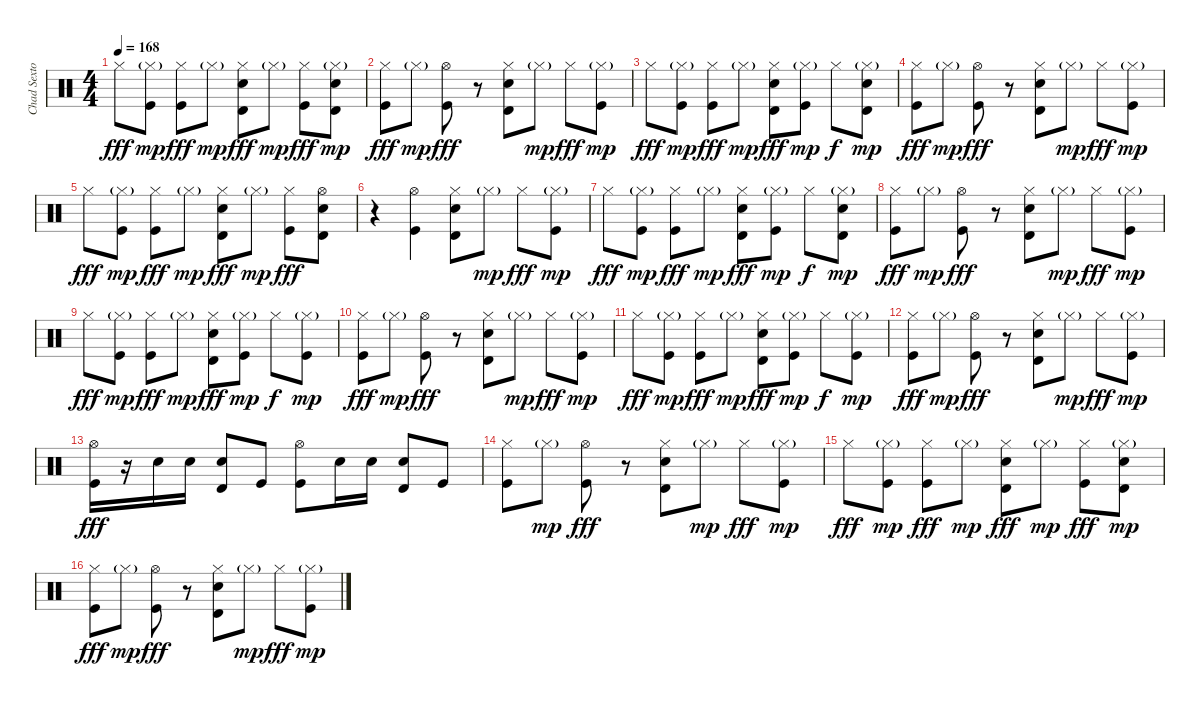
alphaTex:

\track ("Chad Sexton" "Chad Sexto") {instrument percussion}
\staff {score}
\articulation defaults
\ts (4 4)
\tempo 168
\clef neutral
\ks c "Hi-Hat (closed)".8{dy fff}
("Kick (hit)" "Hi-Hat (closed)"{g}).8{dy mp} ("Kick (hit)" "Hi-Hat (closed)").8{dy fff} "Hi-Hat (closed)"{g}.8{dy mp} ("Electric Snare (hit)" "Timbale high (hit)" "Hi-Hat (closed)").8{dy fff} "Hi-Hat (closed)"{g}.8{dy mp} ("Kick (hit)" "Hi-Hat (closed)").8{dy fff} ("Electric Snare (hit)" "Timbale high (hit)" "Hi-Hat (closed)"{g}).8{dy mp} |
("Kick (hit)" "Hi-Hat (closed)").8{dy fff} "Hi-Hat (closed)"{g}.8{dy mp} ("Kick (hit)" "Hi-Hat (open)").8{dy fff} r.8 ("Electric Snare (hit)" "Timbale high (hit)" "Hi-Hat (closed)").8 "Hi-Hat (closed)"{g}.8{dy mp} "Hi-Hat (closed)".8{dy fff} ("Kick (hit)" "Hi-Hat (closed)"{g}).8{dy mp} |
"Hi-Hat (closed)".8{dy fff} ("Kick (hit)" "Hi-Hat (closed)"{g}).8{dy mp} ("Kick (hit)" "Hi-Hat (closed)").8{dy fff} "Hi-Hat (closed)"{g}.8{dy mp} ("Electric Snare (hit)" "Timbale high (hit)" "Hi-Hat (closed)").8{dy fff} ("Kick (hit)" "Hi-Hat (closed)"{g}).8{dy mp} "Hi-Hat (closed)".8{dy f} ("Electric Snare (hit)" "Timbale high (hit)" "Hi-Hat (closed)"{g}).8{dy mp} |
("Kick (hit)" "Hi-Hat (closed)").8{dy fff} "Hi-Hat (closed)"{g}.8{dy mp} ("Kick (hit)" "Hi-Hat (open)").8{dy fff} r.8 ("Electric Snare (hit)" "Timbale high (hit)" "Hi-Hat (closed)").8 "Hi-Hat (closed)"{g}.8{dy mp} "Hi-Hat (closed)".8{dy fff} ("Kick (hit)" "Hi-Hat (closed)"{g}).8{dy mp} |
"Hi-Hat (closed)".8{dy fff} ("Kick (hit)" "Hi-Hat (closed)"{g}).8{dy mp} ("Kick (hit)" "Hi-Hat (closed)").8{dy fff} "Hi-Hat (closed)"{g}.8{dy mp} ("Electric Snare (hit)" "Timbale high (hit)" "Hi-Hat (closed)").8{dy fff} "Hi-Hat (closed)"{g}.8{dy mp} ("Kick (hit)" "Hi-Hat (closed)").8{dy fff} ("Electric Snare (hit)" "Timbale high (hit)" "Hi-Hat (open)").8 |
r.4 ("Kick (hit)" "Hi-Hat (open)").4 ("Electric Snare (hit)" "Timbale high (hit)" "Hi-Hat (closed)").8 "Hi-Hat (closed)"{g}.8{dy mp} "Hi-Hat (closed)".8{dy fff} ("Kick (hit)" "Hi-Hat (closed)"{g}).8{dy mp} |
"Hi-Hat (closed)".8{dy fff} ("Kick (hit)" "Hi-Hat (closed)"{g}).8{dy mp} ("Kick (hit)" "Hi-Hat (closed)").8{dy fff} "Hi-Hat (closed)"{g}.8{dy mp} ("Electric Snare (hit)" "Timbale high (hit)" "Hi-Hat (closed)").8{dy fff} ("Kick (hit)" "Hi-Hat (closed)"{g}).8{dy mp} "Hi-Hat (closed)".8{dy f} ("Electric Snare (hit)" "Timbale high (hit)" "Hi-Hat (closed)"{g}).8{dy mp} |
("Kick (hit)" "Hi-Hat (closed)").8{dy fff} "Hi-Hat (closed)"{g}.8{dy mp} ("Kick (hit)" "Hi-Hat (open)").8{dy fff} r.8 ("Electric Snare (hit)" "Timbale high (hit)" "Hi-Hat (closed)").8 "Hi-Hat (closed)"{g}.8{dy mp} "Hi-Hat (closed)".8{dy fff} ("Kick (hit)" "Hi-Hat (closed)"{g}).8{dy mp} |
"Hi-Hat (closed)".8{dy fff} ("Kick (hit)" "Hi-Hat (closed)"{g}).8{dy mp} ("Kick (hit)" "Hi-Hat (closed)").8{dy fff} "Hi-Hat (closed)"{g}.8{dy mp} ("Electric Snare (hit)" "Timbale high (hit)" "Hi-Hat (closed)").8{dy fff} ("Kick (hit)" "Hi-Hat (closed)"{g}).8{dy mp} "Hi-Hat (closed)".8{dy f} ("Kick (hit)" "Hi-Hat (closed)"{g}).8{dy mp} |
("Kick (hit)" "Hi-Hat (closed)").8{dy fff} "Hi-Hat (closed)"{g}.8{dy mp} ("Kick (hit)" "Hi-Hat (open)").8{dy fff} r.8 ("Electric Snare (hit)" "Timbale high (hit)" "Hi-Hat (closed)").8 "Hi-Hat (closed)"{g}.8{dy mp} "Hi-Hat (closed)".8{dy fff} ("Kick (hit)" "Hi-Hat (closed)"{g}).8{dy mp} |
"Hi-Hat (closed)".8{dy fff} ("Kick (hit)" "Hi-Hat (closed)"{g}).8{dy mp} ("Kick (hit)" "Hi-Hat (closed)").8{dy fff} "Hi-Hat (closed)"{g}.8{dy mp} ("Electric Snare (hit)" "Timbale high (hit)" "Hi-Hat (closed)").8{dy fff} ("Kick (hit)" "Hi-Hat (closed)"{g}).8{dy mp} "Hi-Hat (closed)".8{dy f} ("Kick (hit)" "Hi-Hat (closed)"{g}).8{dy mp} |
("Kick (hit)" "Hi-Hat (closed)").8{dy fff} "Hi-Hat (closed)"{g}.8{dy mp} ("Kick (hit)" "Hi-Hat (open)").8{dy fff} r.8 ("Electric Snare (hit)" "Timbale high (hit)" "Hi-Hat (closed)").8 "Hi-Hat (closed)"{g}.8{dy mp} "Hi-Hat (closed)".8{dy fff} ("Kick (hit)" "Hi-Hat (closed)"{g}).8{dy mp} |
("Hi-Hat (open)" "Kick (hit)").16{dy fff} r.16 "Electric Snare (hit)".16 "Electric Snare (hit)".16 ("Electric Snare (hit)" "Timbale high (hit)").8 "Kick (hit)".8 ("Hi-Hat (open)" "Kick (hit)").8 "Electric Snare (hit)".16 "Electric Snare (hit)".16 ("Electric Snare (hit)" "Timbale high (hit)").8 "Kick (hit)".8 |
("Kick (hit)" "Hi-Hat (closed)").8 "Hi-Hat (closed)"{g}.8{dy mp} ("Kick (hit)" "Hi-Hat (open)").8{dy fff} r.8 ("Electric Snare (hit)" "Timbale high (hit)" "Hi-Hat (closed)").8 "Hi-Hat (closed)"{g}.8{dy mp} "Hi-Hat (closed)".8{dy fff} ("Kick (hit)" "Hi-Hat (closed)"{g}).8{dy mp} |
"Hi-Hat (closed)".8{dy fff} ("Kick (hit)" "Hi-Hat (closed)"{g}).8{dy mp} ("Kick (hit)" "Hi-Hat (closed)").8{dy fff} "Hi-Hat (closed)"{g}.8{dy mp} ("Electric Snare (hit)" "Timbale high (hit)" "Hi-Hat (closed)").8{dy fff} "Hi-Hat (closed)"{g}.8{dy mp} ("Kick (hit)" "Hi-Hat (closed)").8{dy fff} ("Timbale high (hit)" "Electric Snare (hit)" "Hi-Hat (closed)"{g}).8{dy mp} |
("Kick (hit)" "Hi-Hat (closed)").8{dy fff} "Hi-Hat (closed)"{g}.8{dy mp} ("Kick (hit)" "Hi-Hat (open)").8{dy fff} r.8 ("Electric Snare (hit)" "Timbale high (hit)" "Hi-Hat (closed)").8 "Hi-Hat (closed)"{g}.8{dy mp} "Hi-Hat (closed)".8{dy fff} ("Kick (hit)" "Hi-Hat (closed)"{g}).8{dy mp}
